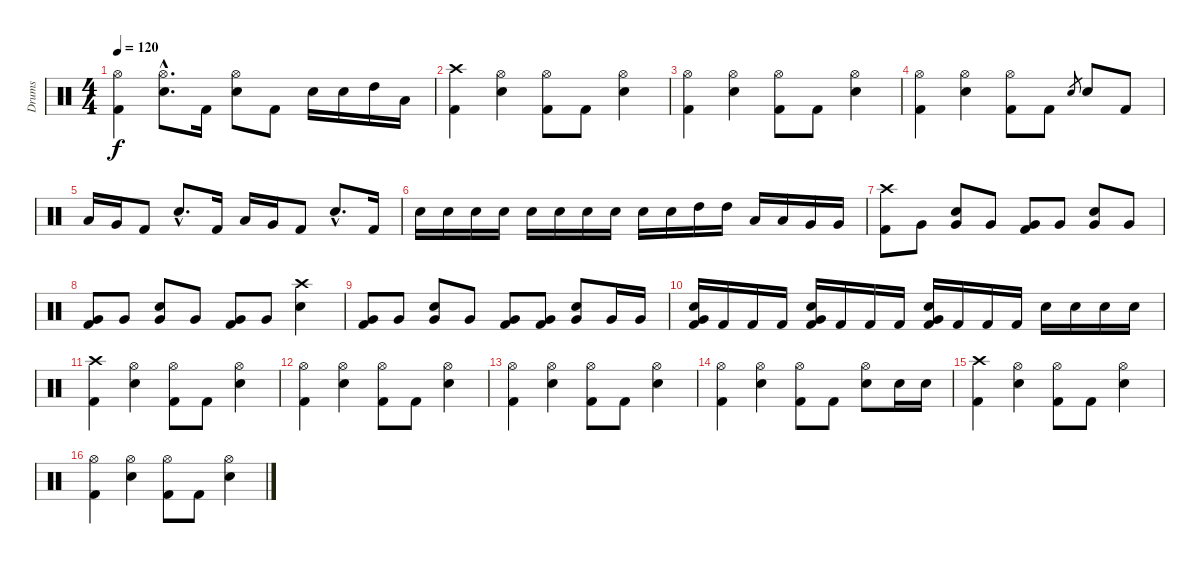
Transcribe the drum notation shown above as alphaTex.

\track ("Drums" "Drums") {instrument percussion}
\staff {score}
\articulation defaults
\ts (4 4)
\tempo 120
\clef neutral
\ks c
("Hi-Hat (open)" "Kick (hit) 2").4{dy f} ("Hi-Hat (open)"{hac} "Electric Snare (hit)"{hac}).8{d} "Kick (hit) 2".16 ("Hi-Hat (open)" "Electric Snare (hit)").8 "Kick (hit) 2".8 "Electric Snare (hit)".16 "Electric Snare (hit)".16 "High Tom (hit)".16 "Low Tom (hit)".16 |
("Crash high (hit)" "Kick (hit) 2").4 ("Hi-Hat (open)" "Electric Snare (hit)").4 ("Hi-Hat (open)" "Kick (hit) 2").8 "Kick (hit) 2".8 ("Hi-Hat (open)" "Electric Snare (hit)").4 |
("Hi-Hat (open)" "Kick (hit) 2").4 ("Hi-Hat (open)" "Electric Snare (hit)").4 ("Hi-Hat (open)" "Kick (hit) 2").8 "Kick (hit) 2".8 ("Hi-Hat (open)" "Electric Snare (hit)").4 |
("Hi-Hat (open)" "Kick (hit) 2").4 ("Hi-Hat (open)" "Electric Snare (hit)").4 ("Hi-Hat (open)" "Kick (hit) 2").8 "Kick (hit) 2".8 "Electric Snare (hit)".8{gr} "Electric Snare (hit)".8 "Kick (hit) 2".8 |
"Low Tom (hit)".16 "Very Low Tom (hit)".16 "Kick (hit) 2".8 "Electric Snare (hit)"{hac}.8{d} "Kick (hit) 2".16 "Low Tom (hit)".16 "Very Low Tom (hit)".16 "Kick (hit) 2".8 "Electric Snare (hit)"{hac}.8{d} "Kick (hit) 2".16 |
"Electric Snare (hit)".16 "Electric Snare (hit)".16 "Electric Snare (hit)".16 "Electric Snare (hit)".16 "Electric Snare (hit)".16 "Electric Snare (hit)".16 "Electric Snare (hit)".16 "Electric Snare (hit)".16 "Electric Snare (hit)".16 "Electric Snare (hit)".16 "High Tom (hit)".16 "High Tom (hit)".16 "Low Tom (hit)".16 "Low Tom (hit)".16 "Very Low Tom (hit)".16 "Very Low Tom (hit)".16 |
("Crash high (hit)" "Kick (hit) 2").8 "Very Low Tom (hit)".8 ("Electric Snare (hit)" "Very Low Tom (hit)").8 "Very Low Tom (hit)".8 ("Very Low Tom (hit)" "Kick (hit) 2").8 "Very Low Tom (hit)".8 ("Electric Snare (hit)" "Very Low Tom (hit)").8 "Very Low Tom (hit)".8 |
("Very Low Tom (hit)" "Kick (hit) 2").8 "Very Low Tom (hit)".8 ("Electric Snare (hit)" "Very Low Tom (hit)").8 "Very Low Tom (hit)".8 ("Very Low Tom (hit)" "Kick (hit) 2").8 "Very Low Tom (hit)".8 ("Crash high (hit)" "Electric Snare (hit)").4 |
("Very Low Tom (hit)" "Kick (hit) 2").8 "Very Low Tom (hit)".8 ("Electric Snare (hit)" "Very Low Tom (hit)").8 "Very Low Tom (hit)".8 ("Very Low Tom (hit)" "Kick (hit) 2").8 ("Very Low Tom (hit)" "Kick (hit) 2").8 ("Electric Snare (hit)" "Very Low Tom (hit)").8 "Very Low Tom (hit)".16 "Very Low Tom (hit)".16 |
("Electric Snare (hit)" "Very Low Tom (hit)" "Kick (hit) 2").16 "Kick (hit) 2".16 "Kick (hit) 2".16 "Kick (hit) 2".16 ("Electric Snare (hit)" "Very Low Tom (hit)" "Kick (hit) 2").16 "Kick (hit) 2".16 "Kick (hit) 2".16 "Kick (hit) 2".16 ("Electric Snare (hit)" "Very Low Tom (hit)" "Kick (hit) 2").16 "Kick (hit) 2".16 "Kick (hit) 2".16 "Kick (hit) 2".16 "Electric Snare (hit)".16 "Electric Snare (hit)".16 "Electric Snare (hit)".16 "Electric Snare (hit)".16 |
("Crash high (hit)" "Kick (hit) 2").4 ("Hi-Hat (open)" "Electric Snare (hit)").4 ("Hi-Hat (open)" "Kick (hit) 2").8 "Kick (hit) 2".8 ("Hi-Hat (open)" "Electric Snare (hit)").4 |
("Hi-Hat (open)" "Kick (hit) 2").4 ("Hi-Hat (open)" "Electric Snare (hit)").4 ("Hi-Hat (open)" "Kick (hit) 2").8 "Kick (hit) 2".8 ("Hi-Hat (open)" "Electric Snare (hit)").4 |
("Hi-Hat (open)" "Kick (hit) 2").4 ("Hi-Hat (open)" "Electric Snare (hit)").4 ("Hi-Hat (open)" "Kick (hit) 2").8 "Kick (hit) 2".8 ("Hi-Hat (open)" "Electric Snare (hit)").4 |
("Hi-Hat (open)" "Kick (hit) 2").4 ("Hi-Hat (open)" "Electric Snare (hit)").4 ("Hi-Hat (open)" "Kick (hit) 2").8 "Kick (hit) 2".8 ("Hi-Hat (open)" "Electric Snare (hit)").8 "Electric Snare (hit)".16 "Electric Snare (hit)".16 |
("Crash high (hit)" "Kick (hit) 2").4 ("Hi-Hat (open)" "Electric Snare (hit)").4 ("Hi-Hat (open)" "Kick (hit) 2").8 "Kick (hit) 2".8 ("Hi-Hat (open)" "Electric Snare (hit)").4 |
("Hi-Hat (open)" "Kick (hit) 2").4 ("Hi-Hat (open)" "Electric Snare (hit)").4 ("Hi-Hat (open)" "Kick (hit) 2").8 "Kick (hit) 2".8 ("Hi-Hat (open)" "Electric Snare (hit)").4
